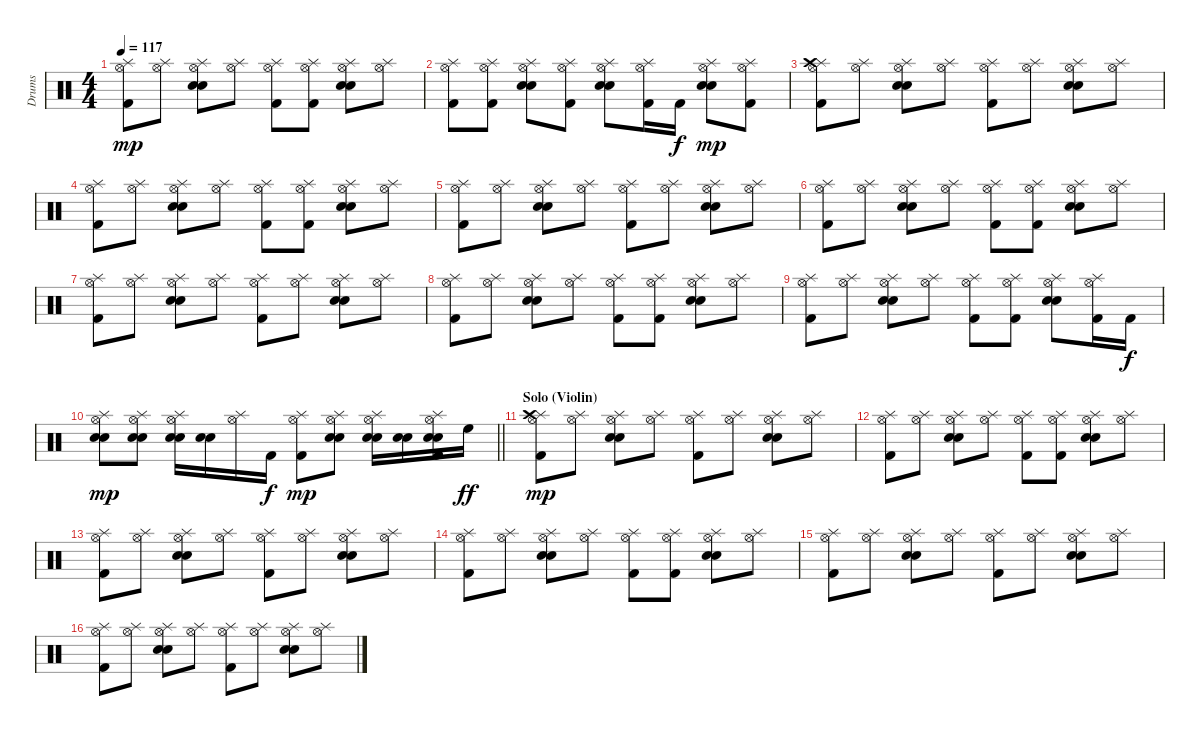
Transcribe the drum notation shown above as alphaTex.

\track ("Drums" "Drums") {instrument percussion}
\staff {score}
\articulation defaults
\ts (4 4)
\tempo 117
\clef neutral
\ks c
("Splash (hit)" "Hi-Hat (open)" "Kick (hit) 2").8{dy mp} ("Splash (hit)" "Hi-Hat (open)").8 ("Splash (hit)" "Hi-Hat (open)" "Electric Snare (hit)" "Snare (hit) 2").8 ("Splash (hit)" "Hi-Hat (open)").8 ("Splash (hit)" "Hi-Hat (open)" "Kick (hit) 2").8 ("Splash (hit)" "Hi-Hat (open)" "Kick (hit) 2").8 ("Splash (hit)" "Hi-Hat (open)" "Electric Snare (hit)" "Snare (hit) 2").8 ("Splash (hit)" "Hi-Hat (open)").8 |
("Splash (hit)" "Hi-Hat (open)" "Kick (hit) 2").8 ("Splash (hit)" "Hi-Hat (open)" "Kick (hit) 2").8 ("Splash (hit)" "Hi-Hat (open)" "Electric Snare (hit)" "Snare (hit) 2").8 ("Splash (hit)" "Hi-Hat (open)" "Kick (hit) 2").8 ("Splash (hit)" "Hi-Hat (open)" "Electric Snare (hit)" "Snare (hit) 2").8 ("Splash (hit)" "Hi-Hat (open)" "Kick (hit) 2").16 "Kick (hit) 2".16{dy f} ("Splash (hit)" "Hi-Hat (open)" "Electric Snare (hit)" "Snare (hit) 2").8{dy mp} ("Splash (hit)" "Hi-Hat (open)" "Kick (hit) 2").8 |
("Splash (hit)" "Crash high (hit)" "Hi-Hat (open)" "Kick (hit) 2").8 ("Splash (hit)" "Hi-Hat (open)").8 ("Splash (hit)" "Hi-Hat (open)" "Electric Snare (hit)" "Snare (hit) 2").8 ("Splash (hit)" "Hi-Hat (open)").8 ("Splash (hit)" "Hi-Hat (open)" "Kick (hit) 2").8 ("Splash (hit)" "Hi-Hat (open)").8 ("Splash (hit)" "Hi-Hat (open)" "Electric Snare (hit)" "Snare (hit) 2").8 ("Splash (hit)" "Hi-Hat (open)").8 |
("Splash (hit)" "Hi-Hat (open)" "Kick (hit) 2").8 ("Splash (hit)" "Hi-Hat (open)").8 ("Splash (hit)" "Hi-Hat (open)" "Electric Snare (hit)" "Snare (hit) 2").8 ("Splash (hit)" "Hi-Hat (open)").8 ("Splash (hit)" "Hi-Hat (open)" "Kick (hit) 2").8 ("Splash (hit)" "Hi-Hat (open)" "Kick (hit) 2").8 ("Splash (hit)" "Hi-Hat (open)" "Electric Snare (hit)" "Snare (hit) 2").8 ("Splash (hit)" "Hi-Hat (open)").8 |
("Splash (hit)" "Hi-Hat (open)" "Kick (hit) 2").8 ("Splash (hit)" "Hi-Hat (open)").8 ("Splash (hit)" "Hi-Hat (open)" "Electric Snare (hit)" "Snare (hit) 2").8 ("Splash (hit)" "Hi-Hat (open)").8 ("Splash (hit)" "Hi-Hat (open)" "Kick (hit) 2").8 ("Splash (hit)" "Hi-Hat (open)").8 ("Splash (hit)" "Hi-Hat (open)" "Electric Snare (hit)" "Snare (hit) 2").8 ("Splash (hit)" "Hi-Hat (open)").8 |
("Splash (hit)" "Hi-Hat (open)" "Kick (hit) 2").8 ("Splash (hit)" "Hi-Hat (open)").8 ("Splash (hit)" "Hi-Hat (open)" "Electric Snare (hit)" "Snare (hit) 2").8 ("Splash (hit)" "Hi-Hat (open)").8 ("Splash (hit)" "Hi-Hat (open)" "Kick (hit) 2").8 ("Splash (hit)" "Hi-Hat (open)" "Kick (hit) 2").8 ("Splash (hit)" "Hi-Hat (open)" "Electric Snare (hit)" "Snare (hit) 2").8 ("Splash (hit)" "Hi-Hat (open)").8 |
("Splash (hit)" "Hi-Hat (open)" "Kick (hit) 2").8 ("Splash (hit)" "Hi-Hat (open)").8 ("Splash (hit)" "Hi-Hat (open)" "Electric Snare (hit)" "Snare (hit) 2").8 ("Splash (hit)" "Hi-Hat (open)").8 ("Splash (hit)" "Hi-Hat (open)" "Kick (hit) 2").8 ("Splash (hit)" "Hi-Hat (open)").8 ("Splash (hit)" "Hi-Hat (open)" "Electric Snare (hit)" "Snare (hit) 2").8 ("Splash (hit)" "Hi-Hat (open)").8 |
("Splash (hit)" "Hi-Hat (open)" "Kick (hit) 2").8 ("Splash (hit)" "Hi-Hat (open)").8 ("Splash (hit)" "Hi-Hat (open)" "Electric Snare (hit)" "Snare (hit) 2").8 ("Splash (hit)" "Hi-Hat (open)").8 ("Splash (hit)" "Hi-Hat (open)" "Kick (hit) 2").8 ("Splash (hit)" "Hi-Hat (open)" "Kick (hit) 2").8 ("Splash (hit)" "Hi-Hat (open)" "Electric Snare (hit)" "Snare (hit) 2").8 ("Splash (hit)" "Hi-Hat (open)").8 |
("Splash (hit)" "Hi-Hat (open)" "Kick (hit) 2").8 ("Splash (hit)" "Hi-Hat (open)").8 ("Splash (hit)" "Hi-Hat (open)" "Electric Snare (hit)" "Snare (hit) 2").8 ("Splash (hit)" "Hi-Hat (open)").8 ("Splash (hit)" "Hi-Hat (open)" "Kick (hit) 2").8 ("Splash (hit)" "Hi-Hat (open)" "Kick (hit) 2").8 ("Splash (hit)" "Hi-Hat (open)" "Electric Snare (hit)" "Snare (hit) 2").8 ("Splash (hit)" "Hi-Hat (open)" "Kick (hit) 2").16 "Kick (hit) 2".16{dy f} |
\barLineRight lightlight
("Splash (hit)" "Hi-Hat (open)" "Electric Snare (hit)" "Snare (hit) 2").8{dy mp} ("Splash (hit)" "Hi-Hat (open)" "Electric Snare (hit)" "Snare (hit) 2").8 ("Splash (hit)" "Hi-Hat (open)" "Electric Snare (hit)" "Snare (hit) 2").16 ("Electric Snare (hit)" "Snare (hit) 2").16 ("Splash (hit)" "Hi-Hat (open)").16 "Kick (hit) 2".16{dy f} ("Splash (hit)" "Hi-Hat (open)" "Kick (hit) 2").8{dy mp} ("Splash (hit)" "Hi-Hat (open)" "Electric Snare (hit)" "Snare (hit) 2").8 ("Splash (hit)" "Hi-Hat (open)" "Electric Snare (hit)" "Snare (hit) 2").16 ("Electric Snare (hit)" "Snare (hit) 2").16 ("Splash (hit)" "Hi-Hat (open)" "Electric Snare (hit)" "Snare (hit) 2" "Kick (hit) 2").16 "High Floor Tom (hit)".16{dy ff} |
\section ("" "Solo (Violin)")
("Splash (hit)" "Crash high (hit)" "Hi-Hat (open)" "Kick (hit) 2").8{dy mp} ("Splash (hit)" "Hi-Hat (open)").8 ("Splash (hit)" "Hi-Hat (open)" "Electric Snare (hit)" "Snare (hit) 2").8 ("Splash (hit)" "Hi-Hat (open)").8 ("Splash (hit)" "Hi-Hat (open)" "Kick (hit) 2").8 ("Splash (hit)" "Hi-Hat (open)").8 ("Splash (hit)" "Hi-Hat (open)" "Electric Snare (hit)" "Snare (hit) 2").8 ("Splash (hit)" "Hi-Hat (open)").8 |
("Splash (hit)" "Hi-Hat (open)" "Kick (hit) 2").8 ("Splash (hit)" "Hi-Hat (open)").8 ("Splash (hit)" "Hi-Hat (open)" "Electric Snare (hit)" "Snare (hit) 2").8 ("Splash (hit)" "Hi-Hat (open)").8 ("Splash (hit)" "Hi-Hat (open)" "Kick (hit) 2").8 ("Splash (hit)" "Hi-Hat (open)" "Kick (hit) 2").8 ("Splash (hit)" "Hi-Hat (open)" "Electric Snare (hit)" "Snare (hit) 2").8 ("Splash (hit)" "Hi-Hat (open)").8 |
("Splash (hit)" "Hi-Hat (open)" "Kick (hit) 2").8 ("Splash (hit)" "Hi-Hat (open)").8 ("Splash (hit)" "Hi-Hat (open)" "Electric Snare (hit)" "Snare (hit) 2").8 ("Splash (hit)" "Hi-Hat (open)").8 ("Splash (hit)" "Hi-Hat (open)" "Kick (hit) 2").8 ("Splash (hit)" "Hi-Hat (open)").8 ("Splash (hit)" "Hi-Hat (open)" "Electric Snare (hit)" "Snare (hit) 2").8 ("Splash (hit)" "Hi-Hat (open)").8 |
("Splash (hit)" "Hi-Hat (open)" "Kick (hit) 2").8 ("Splash (hit)" "Hi-Hat (open)").8 ("Splash (hit)" "Hi-Hat (open)" "Electric Snare (hit)" "Snare (hit) 2").8 ("Splash (hit)" "Hi-Hat (open)").8 ("Splash (hit)" "Hi-Hat (open)" "Kick (hit) 2").8 ("Splash (hit)" "Hi-Hat (open)" "Kick (hit) 2").8 ("Splash (hit)" "Hi-Hat (open)" "Electric Snare (hit)" "Snare (hit) 2").8 ("Splash (hit)" "Hi-Hat (open)").8 |
("Splash (hit)" "Hi-Hat (open)" "Kick (hit) 2").8 ("Splash (hit)" "Hi-Hat (open)").8 ("Splash (hit)" "Hi-Hat (open)" "Electric Snare (hit)" "Snare (hit) 2").8 ("Splash (hit)" "Hi-Hat (open)").8 ("Splash (hit)" "Hi-Hat (open)" "Kick (hit) 2").8 ("Splash (hit)" "Hi-Hat (open)").8 ("Splash (hit)" "Hi-Hat (open)" "Electric Snare (hit)" "Snare (hit) 2").8 ("Splash (hit)" "Hi-Hat (open)").8 |
("Splash (hit)" "Hi-Hat (open)" "Kick (hit) 2").8 ("Splash (hit)" "Hi-Hat (open)").8 ("Splash (hit)" "Hi-Hat (open)" "Electric Snare (hit)" "Snare (hit) 2").8 ("Splash (hit)" "Hi-Hat (open)").8 ("Splash (hit)" "Hi-Hat (open)" "Kick (hit) 2").8 ("Splash (hit)" "Hi-Hat (open)").8 ("Splash (hit)" "Hi-Hat (open)" "Electric Snare (hit)" "Snare (hit) 2").8 ("Splash (hit)" "Hi-Hat (open)").8
